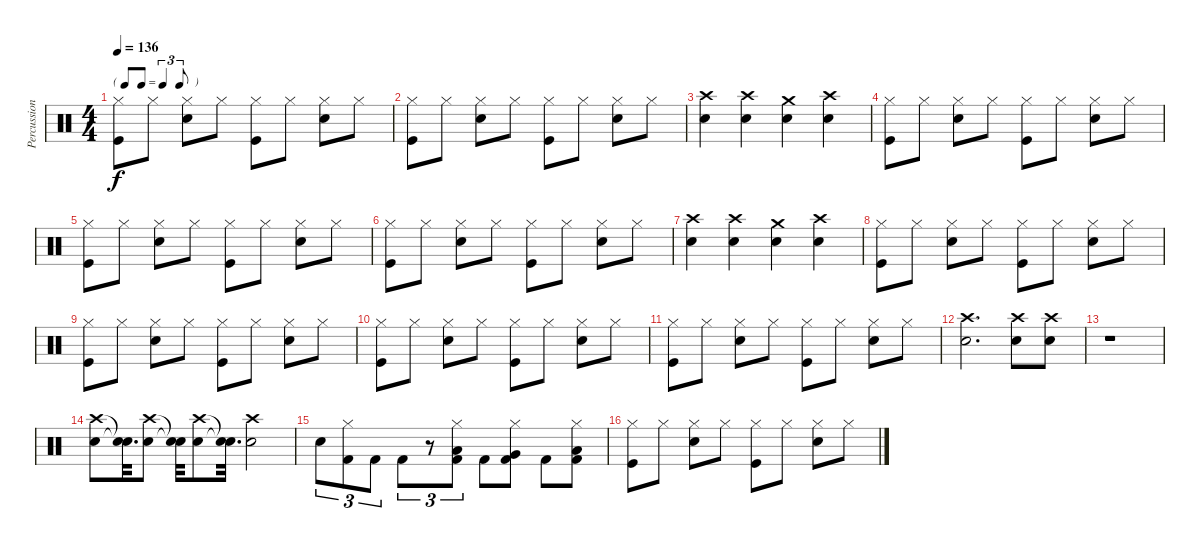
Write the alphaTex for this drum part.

\track ("Percussion" "Percussion") {instrument percussion}
\staff {score}
\articulation defaults
\ts (4 4)
\tf triplet8th
\tempo 136
\clef neutral
\ks c
("Hi-Hat (closed)" "Kick (hit)").8{dy f} "Hi-Hat (closed)".8 ("Hi-Hat (closed)" "Snare (hit) 2").8 "Hi-Hat (closed)".8 ("Hi-Hat (closed)" "Kick (hit)").8 "Hi-Hat (closed)".8 ("Hi-Hat (closed)" "Snare (hit) 2").8 "Hi-Hat (closed)".8 |
("Hi-Hat (closed)" "Kick (hit)").8 "Hi-Hat (closed)".8 ("Hi-Hat (closed)" "Snare (hit) 2").8 "Hi-Hat (closed)".8 ("Hi-Hat (closed)" "Kick (hit)").8 "Hi-Hat (closed)".8 ("Hi-Hat (closed)" "Snare (hit) 2").8 "Hi-Hat (closed)".8 |
("Crash high (hit)" "Snare (hit) 2").4 ("Crash high (hit)" "Snare (hit) 2").4 ("Crash medium (hit)" "Snare (hit) 2").4 ("Crash high (hit)" "Snare (hit) 2").4 |
("Hi-Hat (closed)" "Kick (hit)").8 "Hi-Hat (closed)".8 ("Hi-Hat (closed)" "Snare (hit) 2").8 "Hi-Hat (closed)".8 ("Hi-Hat (closed)" "Kick (hit)").8 "Hi-Hat (closed)".8 ("Hi-Hat (closed)" "Snare (hit) 2").8 "Hi-Hat (closed)".8 |
("Hi-Hat (closed)" "Kick (hit)").8 "Hi-Hat (closed)".8 ("Hi-Hat (closed)" "Snare (hit) 2").8 "Hi-Hat (closed)".8 ("Hi-Hat (closed)" "Kick (hit)").8 "Hi-Hat (closed)".8 ("Hi-Hat (closed)" "Snare (hit) 2").8 "Hi-Hat (closed)".8 |
("Hi-Hat (closed)" "Kick (hit)").8 "Hi-Hat (closed)".8 ("Hi-Hat (closed)" "Snare (hit) 2").8 "Hi-Hat (closed)".8 ("Hi-Hat (closed)" "Kick (hit)").8 "Hi-Hat (closed)".8 ("Hi-Hat (closed)" "Snare (hit) 2").8 "Hi-Hat (closed)".8 |
("Crash high (hit)" "Snare (hit) 2").4 ("Crash high (hit)" "Snare (hit) 2").4 ("Crash medium (hit)" "Snare (hit) 2").4 ("Crash high (hit)" "Snare (hit) 2").4 |
("Hi-Hat (closed)" "Kick (hit)").8 "Hi-Hat (closed)".8 ("Hi-Hat (closed)" "Snare (hit) 2").8 "Hi-Hat (closed)".8 ("Hi-Hat (closed)" "Kick (hit)").8 "Hi-Hat (closed)".8 ("Hi-Hat (closed)" "Snare (hit) 2").8 "Hi-Hat (closed)".8 |
("Hi-Hat (closed)" "Kick (hit)").8 "Hi-Hat (closed)".8 ("Hi-Hat (closed)" "Snare (hit) 2").8 "Hi-Hat (closed)".8 ("Hi-Hat (closed)" "Kick (hit)").8 "Hi-Hat (closed)".8 ("Hi-Hat (closed)" "Snare (hit) 2").8 "Hi-Hat (closed)".8 |
("Hi-Hat (closed)" "Kick (hit)").8 "Hi-Hat (closed)".8 ("Hi-Hat (closed)" "Snare (hit) 2").8 "Hi-Hat (closed)".8 ("Hi-Hat (closed)" "Kick (hit)").8 "Hi-Hat (closed)".8 ("Hi-Hat (closed)" "Snare (hit) 2").8 "Hi-Hat (closed)".8 |
("Hi-Hat (closed)" "Kick (hit)").8 "Hi-Hat (closed)".8 ("Hi-Hat (closed)" "Snare (hit) 2").8 "Hi-Hat (closed)".8 ("Hi-Hat (closed)" "Kick (hit)").8 "Hi-Hat (closed)".8 ("Hi-Hat (closed)" "Snare (hit) 2").8 "Hi-Hat (closed)".8 |
("Crash high (hit)" "Snare (hit) 2").2{d} ("Crash high (hit)" "Snare (hit) 2").8 ("Crash high (hit)" "Snare (hit) 2").8 |
r.1 |
("Crash high (hit)" "Snare (hit) 2").8 ("Snare (hit)"{t} "Snare (hit)"{t}).32{d} ("Crash high (hit)" "Snare (hit) 2").8 ("Snare (hit)"{t} "Snare (hit)"{t}).32 ("Crash high (hit)" "Snare (hit) 2").8 ("Snare (hit)"{t} "Snare (hit)"{t}).32{d} ("Crash high (hit)" "Snare (hit) 2").2 |
"Snare (hit) 2".8{tu (3 2)} ("Hi-Hat (closed)" "Kick (hit) 2").8{tu (3 2)} "Kick (hit) 2".8{tu (3 2)} "Kick (hit) 2".8{tu (3 2)} r.8{tu (3 2)} ("Hi-Hat (closed)" "Low Tom (hit)" "Kick (hit) 2").8{tu (3 2)} "Kick (hit) 2".8 ("Hi-Hat (closed)" "Very Low Tom (hit)" "Kick (hit) 2").8 "Kick (hit) 2".8 ("Hi-Hat (closed)" "Low Floor Tom (hit)" "Kick (hit) 2").8 |
("Hi-Hat (closed)" "Kick (hit)").8 "Hi-Hat (closed)".8 ("Hi-Hat (closed)" "Snare (hit) 2").8 "Hi-Hat (closed)".8 ("Hi-Hat (closed)" "Kick (hit)").8 "Hi-Hat (closed)".8 ("Hi-Hat (closed)" "Snare (hit) 2").8 "Hi-Hat (closed)".8
